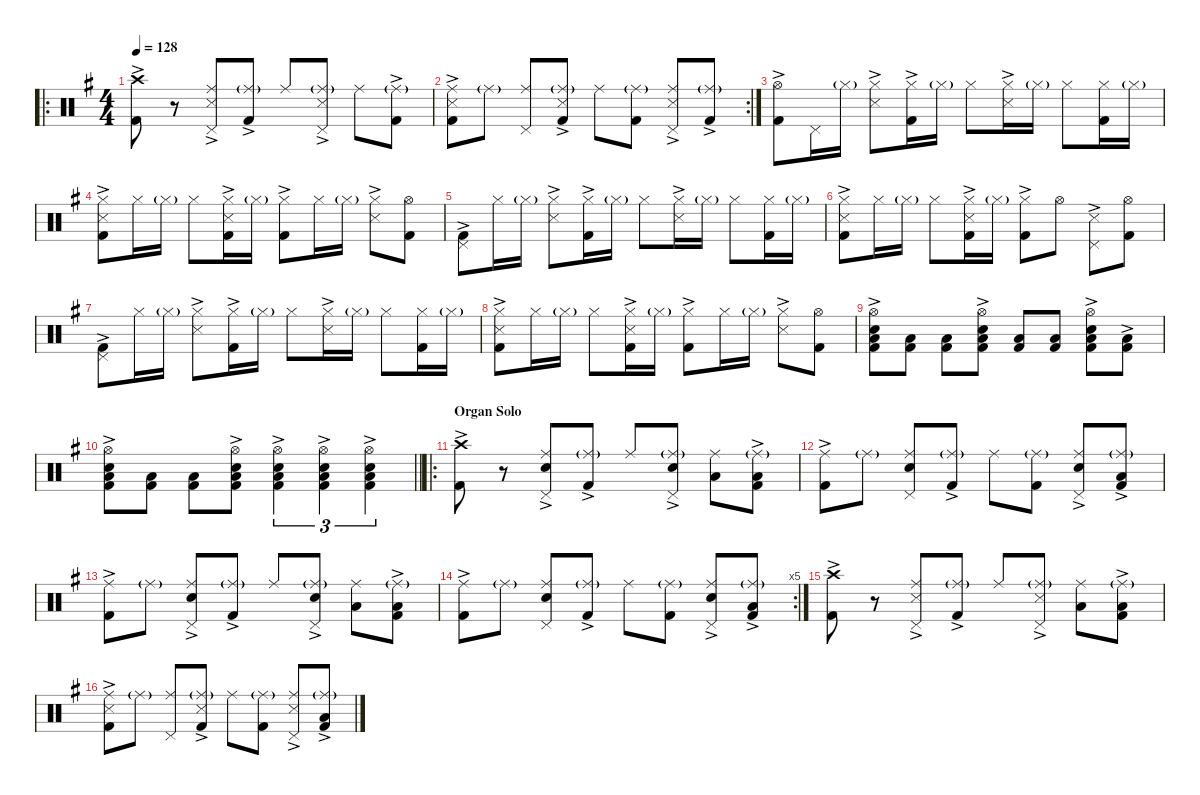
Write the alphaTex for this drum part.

\defaultSystemsLayout 4
\hideDynamics
\bracketExtendMode nobrackets
\singleTrackTrackNamePolicy hidden
\multiTrackTrackNamePolicy hidden
\firstSystemTrackNameMode fullname
\firstSystemTrackNameOrientation horizontal
\otherSystemsTrackNameOrientation horizontal
\track ("Drums" "drm.") {instrument percussion}
\staff {score}
\articulation defaults
\ro
\ts (4 4)
\tempo 128
\clef neutral
\ks g
("Crash high (hit)"{acc forcenatural} "Kick (hit) 2"{ac acc forcenatural}).8{dy f beam Down} r.8{beam Down} ("Ride (middle)"{acc forcenatural} "Pedal Hi-Hat (hit)"{acc forcenatural} "Snare (side stick) 3"{ac acc forcenatural}).8{beam Up} ("Ride (middle)"{g acc forcenatural} "Kick (hit) 2"{ac acc forcenatural}).8{dy mf beam Up} "Ride (middle)"{acc forcenatural}.8{dy f beam Up} ("Ride (middle)"{g acc forcenatural} "Pedal Hi-Hat (hit)"{acc forcenatural} "Snare (side stick) 3"{ac acc forcenatural}).8{beam Up} "Ride (middle)"{acc forcenatural}.8{beam Down} ("Ride (middle)"{g acc forcenatural} "Kick (hit) 2"{ac acc forcenatural}).8{dy mf beam Down} |
\rc 2
("Ride (middle)"{acc forcenatural} "Snare (side stick) 3"{ac acc forcenatural} "Kick (hit) 2"{ac acc forcenatural}).8{dy f beam Down} "Ride (middle)"{g acc forcenatural}.8{dy mf beam Down} ("Ride (middle)"{acc forcenatural} "Pedal Hi-Hat (hit)"{acc forcenatural}).8{dy f beam Up} ("Ride (middle)"{g acc forcenatural} "Snare (side stick) 3"{ac acc forcenatural} "Kick (hit) 2"{ac acc forcenatural}).8{dy mf beam Up} "Ride (middle)"{acc forcenatural}.8{dy f beam Down} ("Ride (middle)"{g acc forcenatural} "Kick (hit) 2"{acc forcenatural}).8{beam Down} ("Ride (middle)"{acc forcenatural} "Pedal Hi-Hat (hit)"{acc forcenatural} "Snare (side stick) 3"{ac acc forcenatural}).8{beam Up} ("Ride (middle)"{g acc forcenatural} "Kick (hit) 2"{ac acc forcenatural}).8{dy mf beam Up} |
("Hi-Hat (open)"{acc forcenatural} "Kick (hit) 2"{ac acc forcenatural}).8{dy f beam Down} "Pedal Hi-Hat (hit)"{acc forcenatural}.16{beam Down} "Hi-Hat (closed)"{g acc forcenatural}.16{dy mf beam Down} ("Hi-Hat (closed)"{acc forcenatural} "Snare (side stick) 3"{ac acc forcenatural}).8{dy f beam Down} ("Hi-Hat (closed)"{acc forcenatural} "Kick (hit) 2"{ac acc forcenatural}).16{beam Down} "Hi-Hat (closed)"{g acc forcenatural}.16{dy mf beam Down} "Hi-Hat (closed)"{acc forcenatural}.8{dy f beam Down} ("Hi-Hat (closed)"{acc forcenatural} "Snare (side stick) 3"{ac acc forcenatural}).16{beam Down} "Hi-Hat (closed)"{g acc forcenatural}.16{dy mf beam Down} "Hi-Hat (closed)"{acc forcenatural}.8{dy f beam Down} ("Hi-Hat (closed)"{acc forcenatural} "Kick (hit) 2"{acc forcenatural}).16{beam Down} "Hi-Hat (closed)"{g acc forcenatural}.16{dy mf beam Down} |
("Hi-Hat (closed)"{acc forcenatural} "Snare (side stick) 3"{ac acc forcenatural} "Kick (hit) 2"{ac acc forcenatural}).8{dy f beam Down} "Hi-Hat (closed)"{acc forcenatural}.16{beam Down} "Hi-Hat (closed)"{g acc forcenatural}.16{dy mf beam Down} "Hi-Hat (closed)"{acc forcenatural}.8{dy f beam Down} ("Hi-Hat (closed)"{acc forcenatural} "Snare (side stick) 3"{ac acc forcenatural} "Kick (hit) 2"{ac acc forcenatural}).16{beam Down} "Hi-Hat (closed)"{g acc forcenatural}.16{dy mf beam Down} ("Hi-Hat (closed)"{acc forcenatural} "Kick (hit) 2"{ac acc forcenatural}).8{dy f beam Down} "Hi-Hat (closed)"{acc forcenatural}.16{beam Down} "Hi-Hat (closed)"{g acc forcenatural}.16{dy mf beam Down} ("Hi-Hat (closed)"{acc forcenatural} "Snare (side stick) 3"{ac acc forcenatural}).8{dy f beam Down} ("Hi-Hat (open)"{acc forcenatural} "Kick (hit) 2"{acc forcenatural}).8{beam Down} |
("Pedal Hi-Hat (hit)"{acc forcenatural} "Kick (hit) 2"{ac acc forcenatural}).8{beam Down} "Hi-Hat (closed)"{acc forcenatural}.16{beam Down} "Hi-Hat (closed)"{g acc forcenatural}.16{dy mf beam Down} ("Hi-Hat (closed)"{acc forcenatural} "Snare (side stick) 3"{ac acc forcenatural}).8{dy f beam Down} ("Hi-Hat (closed)"{acc forcenatural} "Kick (hit) 2"{ac acc forcenatural}).16{beam Down} "Hi-Hat (closed)"{g acc forcenatural}.16{dy mf beam Down} "Hi-Hat (closed)"{acc forcenatural}.8{dy f beam Down} ("Hi-Hat (closed)"{acc forcenatural} "Snare (side stick) 3"{ac acc forcenatural}).16{beam Down} "Hi-Hat (closed)"{g acc forcenatural}.16{dy mf beam Down} "Hi-Hat (closed)"{acc forcenatural}.8{dy f beam Down} ("Hi-Hat (closed)"{acc forcenatural} "Kick (hit) 2"{acc forcenatural}).16{beam Down} "Hi-Hat (closed)"{g acc forcenatural}.16{dy mf beam Down} |
("Hi-Hat (closed)"{acc forcenatural} "Snare (side stick) 3"{ac acc forcenatural} "Kick (hit) 2"{ac acc forcenatural}).8{dy f beam Down} "Hi-Hat (closed)"{acc forcenatural}.16{beam Down} "Hi-Hat (closed)"{g acc forcenatural}.16{dy mf beam Down} "Hi-Hat (closed)"{acc forcenatural}.8{dy f beam Down} ("Hi-Hat (closed)"{acc forcenatural} "Snare (side stick) 3"{ac acc forcenatural} "Kick (hit) 2"{ac acc forcenatural}).16{beam Down} "Hi-Hat (closed)"{g acc forcenatural}.16{dy mf beam Down} ("Hi-Hat (closed)"{acc forcenatural} "Kick (hit) 2"{ac acc forcenatural}).8{dy f beam Down} "Hi-Hat (open)"{acc forcenatural}.8{beam Down} ("Pedal Hi-Hat (hit)"{acc forcenatural} "Snare (side stick) 3"{ac acc forcenatural}).8{beam Down} ("Hi-Hat (open)"{acc forcenatural} "Kick (hit) 2"{acc forcenatural}).8{beam Down} |
("Pedal Hi-Hat (hit)"{acc forcenatural} "Kick (hit) 2"{ac acc forcenatural}).8{beam Down} "Hi-Hat (closed)"{acc forcenatural}.16{beam Down} "Hi-Hat (closed)"{g acc forcenatural}.16{dy mf beam Down} ("Hi-Hat (closed)"{acc forcenatural} "Snare (side stick) 3"{ac acc forcenatural}).8{dy f beam Down} ("Hi-Hat (closed)"{acc forcenatural} "Kick (hit) 2"{ac acc forcenatural}).16{beam Down} "Hi-Hat (closed)"{g acc forcenatural}.16{dy mf beam Down} "Hi-Hat (closed)"{acc forcenatural}.8{dy f beam Down} ("Hi-Hat (closed)"{acc forcenatural} "Snare (side stick) 3"{ac acc forcenatural}).16{beam Down} "Hi-Hat (closed)"{g acc forcenatural}.16{dy mf beam Down} "Hi-Hat (closed)"{acc forcenatural}.8{dy f beam Down} ("Hi-Hat (closed)"{acc forcenatural} "Kick (hit) 2"{acc forcenatural}).16{beam Down} "Hi-Hat (closed)"{g acc forcenatural}.16{dy mf beam Down} |
("Hi-Hat (closed)"{acc forcenatural} "Snare (side stick) 3"{ac acc forcenatural} "Kick (hit) 2"{ac acc forcenatural}).8{dy f beam Down} "Hi-Hat (closed)"{acc forcenatural}.16{beam Down} "Hi-Hat (closed)"{g acc forcenatural}.16{dy mf beam Down} "Hi-Hat (closed)"{acc forcenatural}.8{dy f beam Down} ("Hi-Hat (closed)"{acc forcenatural} "Snare (side stick) 3"{ac acc forcenatural} "Kick (hit) 2"{ac acc forcenatural}).16{beam Down} "Hi-Hat (closed)"{g acc forcenatural}.16{dy mf beam Down} ("Hi-Hat (closed)"{acc forcenatural} "Kick (hit) 2"{ac acc forcenatural}).8{dy f beam Down} "Hi-Hat (closed)"{acc forcenatural}.16{beam Down} "Hi-Hat (closed)"{g acc forcenatural}.16{dy mf beam Down} ("Hi-Hat (closed)"{acc forcenatural} "Snare (side stick) 3"{ac acc forcenatural}).8{dy f beam Down} ("Hi-Hat (open)"{acc forcenatural} "Kick (hit) 2"{acc forcenatural}).8{beam Down} |
("Hi-Hat (open)"{acc forcenatural} "Snare (hit) 2"{ac acc forcenatural} "Low Floor Tom (hit)"{acc forcenatural} "Kick (hit) 2"{acc forcenatural}).8{beam Down} ("Low Floor Tom (hit)"{acc forcenatural} "Kick (hit) 2"{acc forcenatural}).8{beam Down} ("Low Floor Tom (hit)"{acc forcenatural} "Kick (hit) 2"{acc forcenatural}).8{beam Down} ("Hi-Hat (open)"{acc forcenatural} "Snare (hit) 2"{ac acc forcenatural} "Low Floor Tom (hit)"{acc forcenatural} "Kick (hit) 2"{acc forcenatural}).8{beam Down} ("Low Floor Tom (hit)"{acc forcenatural} "Kick (hit) 2"{acc forcenatural}).8{beam Up} ("Low Floor Tom (hit)"{acc forcenatural} "Kick (hit) 2"{acc forcenatural}).8{beam Up} ("Hi-Hat (open)"{acc forcenatural} "Snare (hit) 2"{ac acc forcenatural} "Low Floor Tom (hit)"{acc forcenatural} "Kick (hit) 2"{acc forcenatural}).8{beam Down} ("Low Floor Tom (hit)"{acc forcenatural} "Kick (hit) 2"{ac acc forcenatural}).8{beam Down} |
\barLineRight lightlight
("Hi-Hat (open)"{acc forcenatural} "Snare (hit) 2"{ac acc forcenatural} "Low Floor Tom (hit)"{acc forcenatural} "Kick (hit) 2"{acc forcenatural}).8{beam Down} ("Low Floor Tom (hit)"{acc forcenatural} "Kick (hit) 2"{acc forcenatural}).8{beam Down} ("Low Floor Tom (hit)"{acc forcenatural} "Kick (hit) 2"{acc forcenatural}).8{beam Down} ("Hi-Hat (open)"{acc forcenatural} "Snare (hit) 2"{ac acc forcenatural} "Low Floor Tom (hit)"{acc forcenatural} "Kick (hit) 2"{acc forcenatural}).8{beam Down} ("Hi-Hat (open)"{acc forcenatural} "Snare (hit) 2"{ac acc forcenatural} "Low Floor Tom (hit)"{acc forcenatural} "Kick (hit) 2"{acc forcenatural}).4{tu (3 2) beam Down} ("Hi-Hat (open)"{acc forcenatural} "Snare (hit) 2"{ac acc forcenatural} "Low Floor Tom (hit)"{acc forcenatural} "Kick (hit) 2"{acc forcenatural}).4{tu (3 2) beam Down} ("Hi-Hat (open)"{acc forcenatural} "Snare (hit) 2"{ac acc forcenatural} "Low Floor Tom (hit)"{acc forcenatural} "Kick (hit) 2"{acc forcenatural}).4{tu (3 2) beam Down} |
\ro
\section ("" "Organ Solo")
("Crash high (hit)"{acc forcenatural} "Kick (hit) 2"{ac acc forcenatural}).8{beam Down} r.8{beam Down} ("Ride (middle)"{acc forcenatural} "Pedal Hi-Hat (hit)"{acc forcenatural} "Snare (hit) 2"{ac acc forcenatural}).8{beam Up} ("Ride (middle)"{g acc forcenatural} "Kick (hit) 2"{ac acc forcenatural}).8{dy mf beam Up} "Ride (middle)"{acc forcenatural}.8{dy f beam Up} ("Ride (middle)"{g acc forcenatural} "Pedal Hi-Hat (hit)"{acc forcenatural} "Snare (hit) 2"{ac acc forcenatural}).8{beam Up} ("Ride (middle)"{acc forcenatural} "Low Tom (hit)"{acc forcenatural}).8{beam Down} ("Ride (middle)"{g acc forcenatural} "Low Floor Tom (hit)"{acc forcenatural} "Kick (hit) 2"{ac acc forcenatural}).8{beam Down} |
("Ride (middle)"{acc forcenatural} "Kick (hit) 2"{ac acc forcenatural}).8{beam Down} "Ride (middle)"{g acc forcenatural}.8{dy mf beam Down} ("Ride (middle)"{acc forcenatural} "Pedal Hi-Hat (hit)"{acc forcenatural} "Snare (hit) 2"{acc forcenatural}).8{dy f beam Up} ("Ride (middle)"{g acc forcenatural} "Kick (hit) 2"{ac acc forcenatural}).8{dy mf beam Up} "Ride (middle)"{acc forcenatural}.8{dy f beam Down} ("Ride (middle)"{g acc forcenatural} "Kick (hit) 2"{acc forcenatural}).8{beam Down} ("Ride (middle)"{acc forcenatural} "Pedal Hi-Hat (hit)"{acc forcenatural} "Snare (hit) 2"{ac acc forcenatural}).8{beam Up} ("Ride (middle)"{g acc forcenatural} "Low Floor Tom (hit)"{acc forcenatural} "Kick (hit) 2"{ac acc forcenatural}).8{beam Up} |
("Ride (middle)"{acc forcenatural} "Kick (hit) 2"{ac acc forcenatural}).8{beam Down} "Ride (middle)"{g acc forcenatural}.8{dy mf beam Down} ("Ride (middle)"{acc forcenatural} "Pedal Hi-Hat (hit)"{acc forcenatural} "Snare (hit) 2"{ac acc forcenatural}).8{dy f beam Up} ("Ride (middle)"{g acc forcenatural} "Kick (hit) 2"{ac acc forcenatural}).8{dy mf beam Up} "Ride (middle)"{acc forcenatural}.8{dy f beam Up} ("Ride (middle)"{g acc forcenatural} "Pedal Hi-Hat (hit)"{acc forcenatural} "Snare (hit) 2"{ac acc forcenatural}).8{beam Up} ("Ride (middle)"{acc forcenatural} "Low Tom (hit)"{acc forcenatural}).8{beam Down} ("Ride (middle)"{g acc forcenatural} "Low Floor Tom (hit)"{acc forcenatural} "Kick (hit) 2"{ac acc forcenatural}).8{beam Down} |
\rc 5
("Ride (middle)"{acc forcenatural} "Kick (hit) 2"{ac acc forcenatural}).8{beam Down} "Ride (middle)"{g acc forcenatural}.8{dy mf beam Down} ("Ride (middle)"{acc forcenatural} "Pedal Hi-Hat (hit)"{acc forcenatural} "Snare (hit) 2"{acc forcenatural}).8{dy f beam Up} ("Ride (middle)"{g acc forcenatural} "Kick (hit) 2"{ac acc forcenatural}).8{dy mf beam Up} "Ride (middle)"{acc forcenatural}.8{dy f beam Down} ("Ride (middle)"{g acc forcenatural} "Kick (hit) 2"{acc forcenatural}).8{beam Down} ("Ride (middle)"{acc forcenatural} "Pedal Hi-Hat (hit)"{acc forcenatural} "Snare (hit) 2"{ac acc forcenatural}).8{beam Up} ("Ride (middle)"{g acc forcenatural} "Low Floor Tom (hit)"{acc forcenatural} "Kick (hit) 2"{ac acc forcenatural}).8{beam Up} |
("Crash high (hit)"{acc forcenatural} "Kick (hit) 2"{ac acc forcenatural}).8{beam Down} r.8{beam Down} ("Ride (middle)"{acc forcenatural} "Pedal Hi-Hat (hit)"{acc forcenatural} "Snare (side stick) 3"{ac acc forcenatural}).8{beam Up} ("Ride (middle)"{g acc forcenatural} "Kick (hit) 2"{ac acc forcenatural}).8{dy mf beam Up} "Ride (middle)"{acc forcenatural}.8{dy f beam Up} ("Ride (middle)"{g acc forcenatural} "Pedal Hi-Hat (hit)"{acc forcenatural} "Snare (side stick) 3"{ac acc forcenatural}).8{beam Up} ("Ride (middle)"{acc forcenatural} "Low Tom (hit)"{acc forcenatural}).8{beam Down} ("Ride (middle)"{g acc forcenatural} "Low Floor Tom (hit)"{acc forcenatural} "Kick (hit) 2"{ac acc forcenatural}).8{beam Down} |
("Ride (middle)"{acc forcenatural} "Snare (side stick) 3"{ac acc forcenatural} "Kick (hit) 2"{ac acc forcenatural}).8{beam Down} "Ride (middle)"{g acc forcenatural}.8{dy mf beam Down} ("Ride (middle)"{acc forcenatural} "Pedal Hi-Hat (hit)"{acc forcenatural}).8{dy f beam Up} ("Ride (middle)"{g acc forcenatural} "Snare (side stick) 3"{ac acc forcenatural} "Kick (hit) 2"{ac acc forcenatural}).8{dy mf beam Up} "Ride (middle)"{acc forcenatural}.8{dy f beam Down} ("Ride (middle)"{g acc forcenatural} "Kick (hit) 2"{acc forcenatural}).8{beam Down} ("Ride (middle)"{acc forcenatural} "Pedal Hi-Hat (hit)"{acc forcenatural} "Snare (side stick) 3"{ac acc forcenatural}).8{beam Up} ("Ride (middle)"{g acc forcenatural} "Low Floor Tom (hit)"{acc forcenatural} "Kick (hit) 2"{ac acc forcenatural}).8{beam Up}
